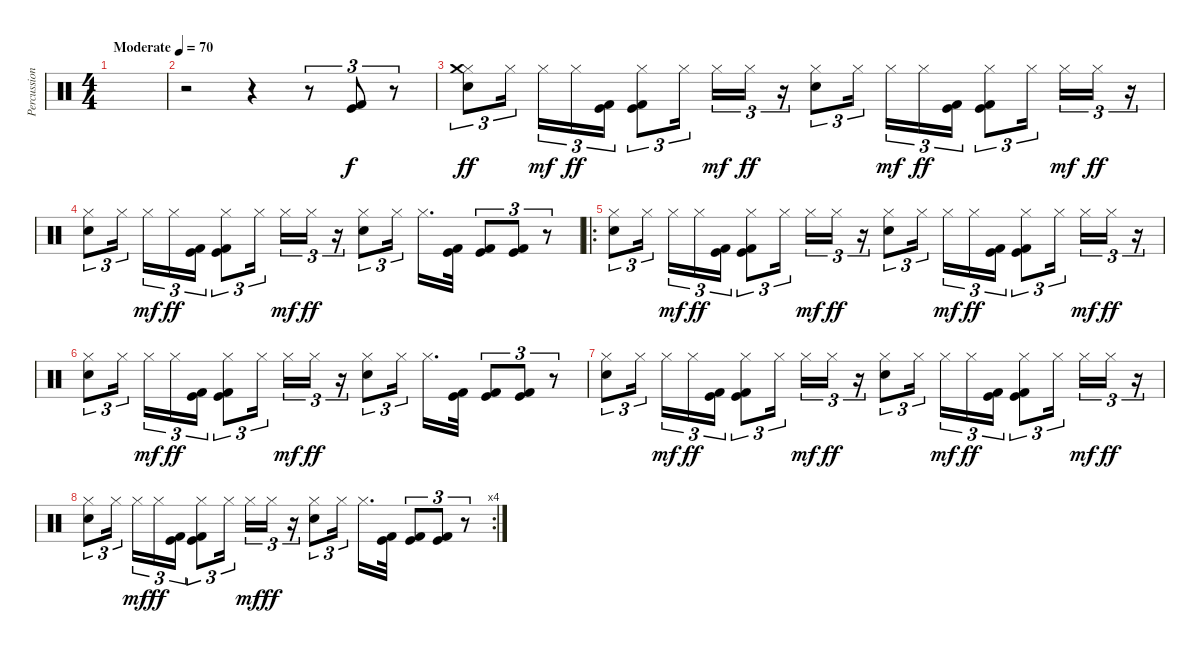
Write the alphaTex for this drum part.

\track ("Percussion" "Percussion") {instrument percussion}
\staff {score}
\articulation defaults
\ts (4 4)
\tempo (70 "Moderate")
\clef neutral
\ks c
|
r.2 r.4 r.8{tu (3 2)} ("Kick (hit)" "Kick (hit) 2").8{tu (3 2)} r.8{tu (3 2)} |
("Hi-Hat (closed)" "Crash medium (hit)" "Electric Snare (hit)").8{tu (3 2) dy ff} "Hi-Hat (closed)".16{tu (3 2) beam splitsecondary} "Hi-Hat (closed)".16{tu (3 2) dy mf} "Hi-Hat (closed)".16{tu (3 2) dy ff} ("Kick (hit) 2" "Kick (hit)").16{tu (3 2)} ("Hi-Hat (closed)" "Kick (hit) 2" "Kick (hit)").8{tu (3 2)} "Hi-Hat (closed)".16{tu (3 2) beam splitsecondary} "Hi-Hat (closed)".16{tu (3 2) dy mf} "Hi-Hat (closed)".16{tu (3 2) dy ff} r.16{tu (3 2)} ("Hi-Hat (closed)" "Electric Snare (hit)").8{tu (3 2)} "Hi-Hat (closed)".16{tu (3 2) beam splitsecondary} "Hi-Hat (closed)".16{tu (3 2) dy mf} "Hi-Hat (closed)".16{tu (3 2) dy ff} ("Kick (hit) 2" "Kick (hit)").16{tu (3 2)} ("Hi-Hat (closed)" "Kick (hit) 2" "Kick (hit)").8{tu (3 2)} "Hi-Hat (closed)".16{tu (3 2) beam splitsecondary} "Hi-Hat (closed)".16{tu (3 2) dy mf} "Hi-Hat (closed)".16{tu (3 2) dy ff} r.16{tu (3 2)} |
("Hi-Hat (closed)" "Electric Snare (hit)").8{tu (3 2)} "Hi-Hat (closed)".16{tu (3 2) beam splitsecondary} "Hi-Hat (closed)".16{tu (3 2) dy mf} "Hi-Hat (closed)".16{tu (3 2) dy ff} ("Kick (hit) 2" "Kick (hit)").16{tu (3 2)} ("Hi-Hat (closed)" "Kick (hit) 2" "Kick (hit)").8{tu (3 2)} "Hi-Hat (closed)".16{tu (3 2) beam splitsecondary} "Hi-Hat (closed)".16{tu (3 2) dy mf} "Hi-Hat (closed)".16{tu (3 2) dy ff} r.16{tu (3 2)} ("Hi-Hat (closed)" "Electric Snare (hit)").8{tu (3 2)} "Hi-Hat (closed)".16{tu (3 2) beam splitsecondary} "Hi-Hat (closed)".16{d} ("Kick (hit) 2" "Kick (hit)").32 ("Kick (hit) 2" "Kick (hit)").8{tu (3 2)} ("Kick (hit) 2" "Kick (hit)").8{tu (3 2)} r.8{tu (3 2)} |
\ro
("Hi-Hat (closed)" "Electric Snare (hit)").8{tu (3 2)} "Hi-Hat (closed)".16{tu (3 2) beam splitsecondary} "Hi-Hat (closed)".16{tu (3 2) dy mf} "Hi-Hat (closed)".16{tu (3 2) dy ff} ("Kick (hit) 2" "Kick (hit)").16{tu (3 2)} ("Hi-Hat (closed)" "Kick (hit) 2" "Kick (hit)").8{tu (3 2)} "Hi-Hat (closed)".16{tu (3 2) beam splitsecondary} "Hi-Hat (closed)".16{tu (3 2) dy mf} "Hi-Hat (closed)".16{tu (3 2) dy ff} r.16{tu (3 2)} ("Hi-Hat (closed)" "Electric Snare (hit)").8{tu (3 2)} "Hi-Hat (closed)".16{tu (3 2) beam splitsecondary} "Hi-Hat (closed)".16{tu (3 2) dy mf} "Hi-Hat (closed)".16{tu (3 2) dy ff} ("Kick (hit) 2" "Kick (hit)").16{tu (3 2)} ("Hi-Hat (closed)" "Kick (hit) 2" "Kick (hit)").8{tu (3 2)} "Hi-Hat (closed)".16{tu (3 2) beam splitsecondary} "Hi-Hat (closed)".16{tu (3 2) dy mf} "Hi-Hat (closed)".16{tu (3 2) dy ff} r.16{tu (3 2)} |
("Hi-Hat (closed)" "Electric Snare (hit)").8{tu (3 2)} "Hi-Hat (closed)".16{tu (3 2) beam splitsecondary} "Hi-Hat (closed)".16{tu (3 2) dy mf} "Hi-Hat (closed)".16{tu (3 2) dy ff} ("Kick (hit) 2" "Kick (hit)").16{tu (3 2)} ("Hi-Hat (closed)" "Kick (hit) 2" "Kick (hit)").8{tu (3 2)} "Hi-Hat (closed)".16{tu (3 2) beam splitsecondary} "Hi-Hat (closed)".16{tu (3 2) dy mf} "Hi-Hat (closed)".16{tu (3 2) dy ff} r.16{tu (3 2)} ("Hi-Hat (closed)" "Electric Snare (hit)").8{tu (3 2)} "Hi-Hat (closed)".16{tu (3 2) beam splitsecondary} "Hi-Hat (closed)".16{d} ("Kick (hit) 2" "Kick (hit)").32 ("Kick (hit) 2" "Kick (hit)").8{tu (3 2)} ("Kick (hit) 2" "Kick (hit)").8{tu (3 2)} r.8{tu (3 2)} |
("Hi-Hat (closed)" "Electric Snare (hit)").8{tu (3 2)} "Hi-Hat (closed)".16{tu (3 2) beam splitsecondary} "Hi-Hat (closed)".16{tu (3 2) dy mf} "Hi-Hat (closed)".16{tu (3 2) dy ff} ("Kick (hit) 2" "Kick (hit)").16{tu (3 2)} ("Hi-Hat (closed)" "Kick (hit) 2" "Kick (hit)").8{tu (3 2)} "Hi-Hat (closed)".16{tu (3 2) beam splitsecondary} "Hi-Hat (closed)".16{tu (3 2) dy mf} "Hi-Hat (closed)".16{tu (3 2) dy ff} r.16{tu (3 2)} ("Hi-Hat (closed)" "Electric Snare (hit)").8{tu (3 2)} "Hi-Hat (closed)".16{tu (3 2) beam splitsecondary} "Hi-Hat (closed)".16{tu (3 2) dy mf} "Hi-Hat (closed)".16{tu (3 2) dy ff} ("Kick (hit) 2" "Kick (hit)").16{tu (3 2)} ("Hi-Hat (closed)" "Kick (hit) 2" "Kick (hit)").8{tu (3 2)} "Hi-Hat (closed)".16{tu (3 2) beam splitsecondary} "Hi-Hat (closed)".16{tu (3 2) dy mf} "Hi-Hat (closed)".16{tu (3 2) dy ff} r.16{tu (3 2)} |
\rc 4
("Hi-Hat (closed)" "Electric Snare (hit)").8{tu (3 2)} "Hi-Hat (closed)".16{tu (3 2) beam splitsecondary} "Hi-Hat (closed)".16{tu (3 2) dy mf} "Hi-Hat (closed)".16{tu (3 2) dy ff} ("Kick (hit) 2" "Kick (hit)").16{tu (3 2)} ("Hi-Hat (closed)" "Kick (hit) 2" "Kick (hit)").8{tu (3 2)} "Hi-Hat (closed)".16{tu (3 2) beam splitsecondary} "Hi-Hat (closed)".16{tu (3 2) dy mf} "Hi-Hat (closed)".16{tu (3 2) dy ff} r.16{tu (3 2)} ("Hi-Hat (closed)" "Electric Snare (hit)").8{tu (3 2)} "Hi-Hat (closed)".16{tu (3 2) beam splitsecondary} "Hi-Hat (closed)".16{d} ("Kick (hit) 2" "Kick (hit)").32 ("Kick (hit) 2" "Kick (hit)").8{tu (3 2)} ("Kick (hit) 2" "Kick (hit)").8{tu (3 2)} r.8{tu (3 2)}
